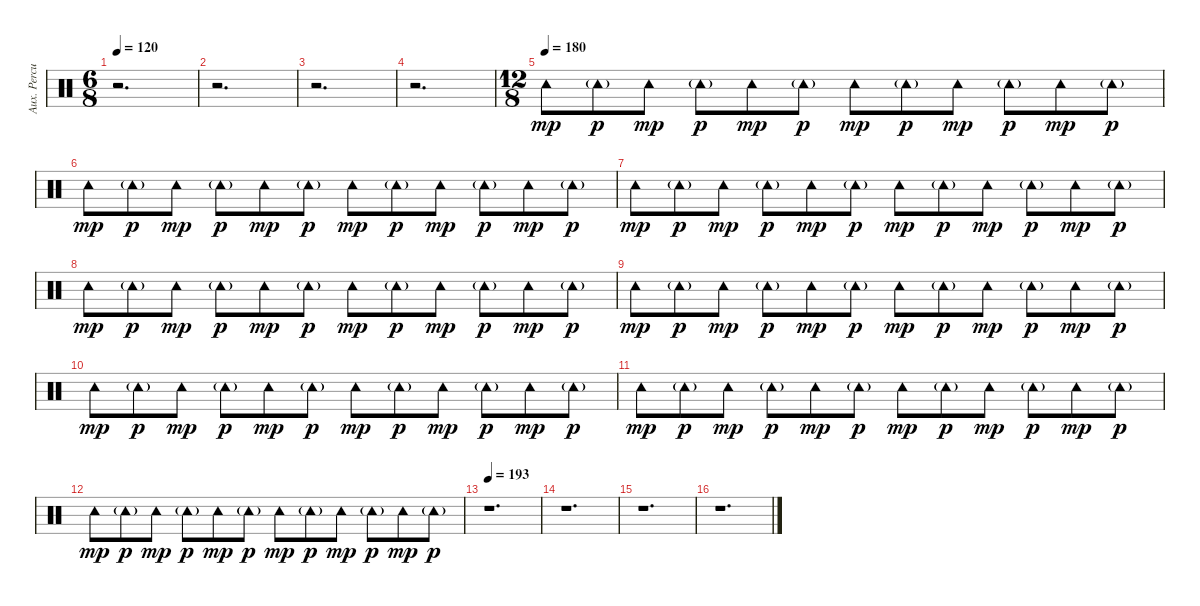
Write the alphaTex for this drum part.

\track ("Aux. Percussion" "Aux. Percu") {instrument percussion}
\staff {score}
\articulation defaults
\ts (6 8)
\tempo 120
\clef neutral
\ks c
r.2{d dy mp} |
r.2{d} |
r.2{d} |
r.2{d} |
\ts (12 8)
\tempo (180)
"Tambourine (hit)".8 "Tambourine (hit)"{g}.8{dy p} "Tambourine (hit)".8{dy mp} "Tambourine (hit)"{g}.8{dy p} "Tambourine (hit)".8{dy mp} "Tambourine (hit)"{g}.8{dy p} "Tambourine (hit)".8{dy mp} "Tambourine (hit)"{g}.8{dy p} "Tambourine (hit)".8{dy mp} "Tambourine (hit)"{g}.8{dy p} "Tambourine (hit)".8{dy mp} "Tambourine (hit)"{g}.8{dy p} |
"Tambourine (hit)".8{dy mp} "Tambourine (hit)"{g}.8{dy p} "Tambourine (hit)".8{dy mp} "Tambourine (hit)"{g}.8{dy p} "Tambourine (hit)".8{dy mp} "Tambourine (hit)"{g}.8{dy p} "Tambourine (hit)".8{dy mp} "Tambourine (hit)"{g}.8{dy p} "Tambourine (hit)".8{dy mp} "Tambourine (hit)"{g}.8{dy p} "Tambourine (hit)".8{dy mp} "Tambourine (hit)"{g}.8{dy p} |
"Tambourine (hit)".8{dy mp} "Tambourine (hit)"{g}.8{dy p} "Tambourine (hit)".8{dy mp} "Tambourine (hit)"{g}.8{dy p} "Tambourine (hit)".8{dy mp} "Tambourine (hit)"{g}.8{dy p} "Tambourine (hit)".8{dy mp} "Tambourine (hit)"{g}.8{dy p} "Tambourine (hit)".8{dy mp} "Tambourine (hit)"{g}.8{dy p} "Tambourine (hit)".8{dy mp} "Tambourine (hit)"{g}.8{dy p} |
"Tambourine (hit)".8{dy mp} "Tambourine (hit)"{g}.8{dy p} "Tambourine (hit)".8{dy mp} "Tambourine (hit)"{g}.8{dy p} "Tambourine (hit)".8{dy mp} "Tambourine (hit)"{g}.8{dy p} "Tambourine (hit)".8{dy mp} "Tambourine (hit)"{g}.8{dy p} "Tambourine (hit)".8{dy mp} "Tambourine (hit)"{g}.8{dy p} "Tambourine (hit)".8{dy mp} "Tambourine (hit)"{g}.8{dy p} |
"Tambourine (hit)".8{dy mp} "Tambourine (hit)"{g}.8{dy p} "Tambourine (hit)".8{dy mp} "Tambourine (hit)"{g}.8{dy p} "Tambourine (hit)".8{dy mp} "Tambourine (hit)"{g}.8{dy p} "Tambourine (hit)".8{dy mp} "Tambourine (hit)"{g}.8{dy p} "Tambourine (hit)".8{dy mp} "Tambourine (hit)"{g}.8{dy p} "Tambourine (hit)".8{dy mp} "Tambourine (hit)"{g}.8{dy p} |
"Tambourine (hit)".8{dy mp} "Tambourine (hit)"{g}.8{dy p} "Tambourine (hit)".8{dy mp} "Tambourine (hit)"{g}.8{dy p} "Tambourine (hit)".8{dy mp} "Tambourine (hit)"{g}.8{dy p} "Tambourine (hit)".8{dy mp} "Tambourine (hit)"{g}.8{dy p} "Tambourine (hit)".8{dy mp} "Tambourine (hit)"{g}.8{dy p} "Tambourine (hit)".8{dy mp} "Tambourine (hit)"{g}.8{dy p} |
"Tambourine (hit)".8{dy mp} "Tambourine (hit)"{g}.8{dy p} "Tambourine (hit)".8{dy mp} "Tambourine (hit)"{g}.8{dy p} "Tambourine (hit)".8{dy mp} "Tambourine (hit)"{g}.8{dy p} "Tambourine (hit)".8{dy mp} "Tambourine (hit)"{g}.8{dy p} "Tambourine (hit)".8{dy mp} "Tambourine (hit)"{g}.8{dy p} "Tambourine (hit)".8{dy mp} "Tambourine (hit)"{g}.8{dy p} |
"Tambourine (hit)".8{dy mp} "Tambourine (hit)"{g}.8{dy p} "Tambourine (hit)".8{dy mp} "Tambourine (hit)"{g}.8{dy p} "Tambourine (hit)".8{dy mp} "Tambourine (hit)"{g}.8{dy p} "Tambourine (hit)".8{dy mp} "Tambourine (hit)"{g}.8{dy p} "Tambourine (hit)".8{dy mp} "Tambourine (hit)"{g}.8{dy p} "Tambourine (hit)".8{dy mp} "Tambourine (hit)"{g}.8{dy p} |
\tempo 193
r.1{d} |
r.1{d} |
r.1{d} |
r.1{d}
